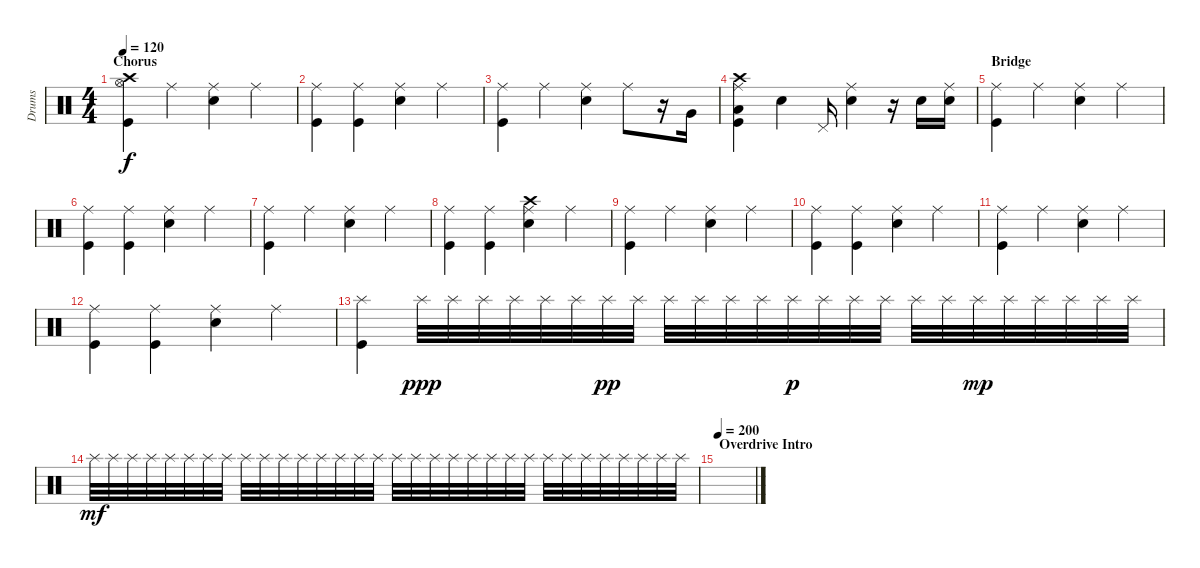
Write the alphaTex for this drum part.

\track ("Drums" "Drums") {instrument percussion}
\staff {score}
\articulation defaults
\ts (4 4)
\section ("" "Chorus")
\tempo 120
\clef neutral
\ks c
("Crash high (hit)" "Hi-Hat (open)" "Kick (hit)").4{dy f} "Ride (middle)".4 ("Ride (middle)" "Electric Snare (hit)").4 "Ride (middle)".4 |
("Ride (middle)" "Kick (hit)").4 ("Ride (middle)" "Kick (hit)").4 ("Ride (middle)" "Electric Snare (hit)").4 "Ride (middle)".4 |
("Ride (middle)" "Kick (hit)").4 "Ride (middle)".4 ("Ride (middle)" "Electric Snare (hit)").4 "Ride (middle)".8 r.16 "Very Low Tom (hit)".16 |
("Ride (middle)" "Crash high (hit)" "Low Tom (hit)" "Kick (hit)").4 "Electric Snare (hit)".4 "Pedal Hi-Hat (hit)".16 ("Ride (middle)" "Electric Snare (hit)").4 r.16 "Electric Snare (hit)".16 ("Ride (middle)" "Electric Snare (hit)").16 |
\section ("" "Bridge")
("Ride (middle)" "Kick (hit)").4 "Ride (middle)".4 ("Ride (middle)" "Electric Snare (hit)").4 "Ride (middle)".4 |
("Ride (middle)" "Kick (hit)").4 ("Ride (middle)" "Kick (hit)").4 ("Ride (middle)" "Electric Snare (hit)").4 "Ride (middle)".4 |
("Ride (middle)" "Kick (hit)").4 "Ride (middle)".4 ("Ride (middle)" "Electric Snare (hit)").4 "Ride (middle)".4 |
("Ride (middle)" "Kick (hit)").4 ("Ride (middle)" "Kick (hit)").4 ("Ride (middle)" "Crash high (hit)" "Electric Snare (hit)").4 "Ride (middle)".4 |
("Ride (middle)" "Kick (hit)").4 "Ride (middle)".4 ("Ride (middle)" "Electric Snare (hit)").4 "Ride (middle)".4 |
("Ride (middle)" "Kick (hit)").4 ("Ride (middle)" "Kick (hit)").4 ("Ride (middle)" "Electric Snare (hit)").4 "Ride (middle)".4 |
("Ride (middle)" "Kick (hit)").4 "Ride (middle)".4 ("Ride (middle)" "Electric Snare (hit)").4 "Ride (middle)".4 |
("Ride (middle)" "Kick (hit)").4 ("Ride (middle)" "Kick (hit)").4 ("Ride (middle)" "Electric Snare (hit)").4 "Ride (middle)".4 |
("Splash (hit)" "Kick (hit)").4 "Splash (hit)".32{dy ppp} "Splash (hit)".32 "Splash (hit)".32 "Splash (hit)".32 "Splash (hit)".32 "Splash (hit)".32 "Splash (hit)".32{dy pp} "Splash (hit)".32 "Splash (hit)".32 "Splash (hit)".32 "Splash (hit)".32 "Splash (hit)".32 "Splash (hit)".32{dy p} "Splash (hit)".32 "Splash (hit)".32 "Splash (hit)".32 "Splash (hit)".32 "Splash (hit)".32 "Splash (hit)".32{dy mp} "Splash (hit)".32 "Splash (hit)".32 "Splash (hit)".32 "Splash (hit)".32 "Splash (hit)".32 |
"Splash (hit)".32{dy mf} "Splash (hit)".32 "Splash (hit)".32 "Splash (hit)".32 "Splash (hit)".32 "Splash (hit)".32 "Splash (hit)".32 "Splash (hit)".32 "Splash (hit)".32 "Splash (hit)".32 "Splash (hit)".32 "Splash (hit)".32 "Splash (hit)".32 "Splash (hit)".32 "Splash (hit)".32 "Splash (hit)".32 "Splash (hit)".32 "Splash (hit)".32 "Splash (hit)".32 "Splash (hit)".32 "Splash (hit)".32 "Splash (hit)".32 "Splash (hit)".32 "Splash (hit)".32 "Splash (hit)".32 "Splash (hit)".32 "Splash (hit)".32 "Splash (hit)".32 "Splash (hit)".32 "Splash (hit)".32 "Splash (hit)".32 "Splash (hit)".32 |
\section ("" "Overdrive Intro")
\tempo 200
